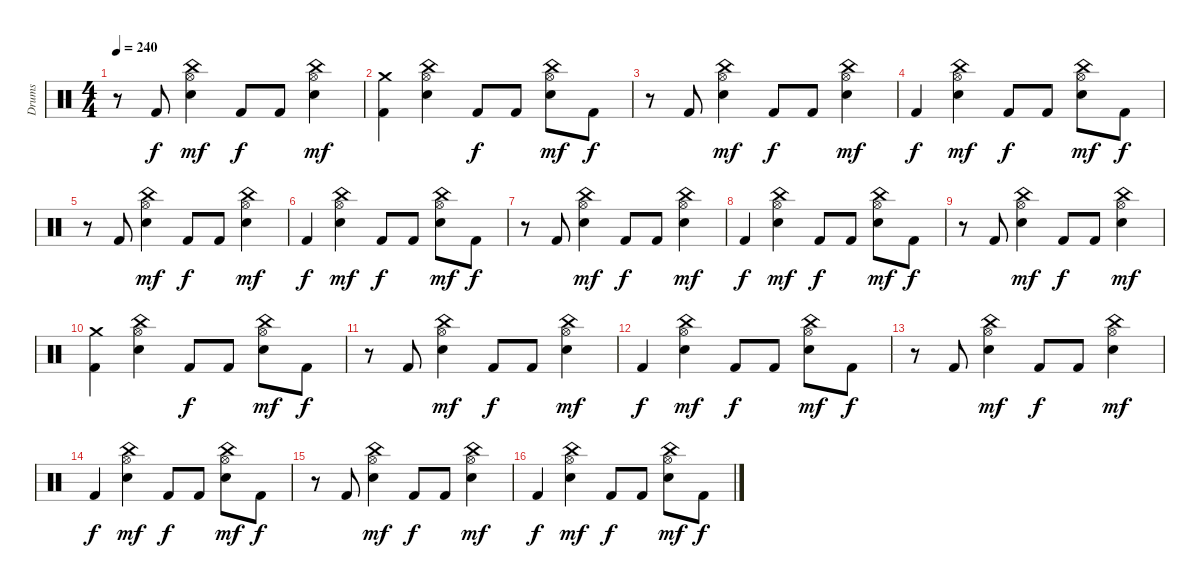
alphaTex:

\track ("Drums" "Drums") {instrument percussion}
\staff {score}
\articulation defaults
\ts (4 4)
\tempo 240
\clef neutral
\ks c
r.8{dy f} "Kick (hit) 2".8 ("Electric Snare (hit)" "China (hit)" "Hi-Hat (open)").4{dy mf} "Kick (hit) 2".8{dy f} "Kick (hit) 2".8 ("Electric Snare (hit)" "China (hit)" "Hi-Hat (open)").4{dy mf} |
("Kick (hit) 2" "Crash medium (hit)").4 ("Electric Snare (hit)" "China (hit)" "Hi-Hat (open)").4 "Kick (hit) 2".8{dy f} "Kick (hit) 2".8 ("Electric Snare (hit)" "China (hit)" "Hi-Hat (open)").8{dy mf} "Kick (hit) 2".8{dy f} |
r.8 "Kick (hit) 2".8 ("Electric Snare (hit)" "China (hit)" "Hi-Hat (open)").4{dy mf} "Kick (hit) 2".8{dy f} "Kick (hit) 2".8 ("Electric Snare (hit)" "China (hit)" "Hi-Hat (open)").4{dy mf} |
"Kick (hit) 2".4{dy f} ("Electric Snare (hit)" "China (hit)" "Hi-Hat (open)").4{dy mf} "Kick (hit) 2".8{dy f} "Kick (hit) 2".8 ("Electric Snare (hit)" "China (hit)" "Hi-Hat (open)").8{dy mf} "Kick (hit) 2".8{dy f} |
r.8 "Kick (hit) 2".8 ("Electric Snare (hit)" "China (hit)" "Hi-Hat (open)").4{dy mf} "Kick (hit) 2".8{dy f} "Kick (hit) 2".8 ("Electric Snare (hit)" "China (hit)" "Hi-Hat (open)").4{dy mf} |
"Kick (hit) 2".4{dy f} ("Electric Snare (hit)" "China (hit)" "Hi-Hat (open)").4{dy mf} "Kick (hit) 2".8{dy f} "Kick (hit) 2".8 ("Electric Snare (hit)" "China (hit)" "Hi-Hat (open)").8{dy mf} "Kick (hit) 2".8{dy f} |
r.8 "Kick (hit) 2".8 ("Electric Snare (hit)" "China (hit)" "Hi-Hat (open)").4{dy mf} "Kick (hit) 2".8{dy f} "Kick (hit) 2".8 ("Electric Snare (hit)" "China (hit)" "Hi-Hat (open)").4{dy mf} |
"Kick (hit) 2".4{dy f} ("Electric Snare (hit)" "China (hit)" "Hi-Hat (open)").4{dy mf} "Kick (hit) 2".8{dy f} "Kick (hit) 2".8 ("Electric Snare (hit)" "China (hit)" "Hi-Hat (open)").8{dy mf} "Kick (hit) 2".8{dy f} |
r.8 "Kick (hit) 2".8 ("Electric Snare (hit)" "China (hit)" "Hi-Hat (open)").4{dy mf} "Kick (hit) 2".8{dy f} "Kick (hit) 2".8 ("Electric Snare (hit)" "China (hit)" "Hi-Hat (open)").4{dy mf} |
("Kick (hit) 2" "Crash medium (hit)").4 ("Electric Snare (hit)" "China (hit)" "Hi-Hat (open)").4 "Kick (hit) 2".8{dy f} "Kick (hit) 2".8 ("Electric Snare (hit)" "China (hit)" "Hi-Hat (open)").8{dy mf} "Kick (hit) 2".8{dy f} |
r.8 "Kick (hit) 2".8 ("Electric Snare (hit)" "China (hit)" "Hi-Hat (open)").4{dy mf} "Kick (hit) 2".8{dy f} "Kick (hit) 2".8 ("Electric Snare (hit)" "China (hit)" "Hi-Hat (open)").4{dy mf} |
"Kick (hit) 2".4{dy f} ("Electric Snare (hit)" "China (hit)" "Hi-Hat (open)").4{dy mf} "Kick (hit) 2".8{dy f} "Kick (hit) 2".8 ("Electric Snare (hit)" "China (hit)" "Hi-Hat (open)").8{dy mf} "Kick (hit) 2".8{dy f} |
r.8 "Kick (hit) 2".8 ("Electric Snare (hit)" "China (hit)" "Hi-Hat (open)").4{dy mf} "Kick (hit) 2".8{dy f} "Kick (hit) 2".8 ("Electric Snare (hit)" "China (hit)" "Hi-Hat (open)").4{dy mf} |
"Kick (hit) 2".4{dy f} ("Electric Snare (hit)" "China (hit)" "Hi-Hat (open)").4{dy mf} "Kick (hit) 2".8{dy f} "Kick (hit) 2".8 ("Electric Snare (hit)" "China (hit)" "Hi-Hat (open)").8{dy mf} "Kick (hit) 2".8{dy f} |
r.8 "Kick (hit) 2".8 ("Electric Snare (hit)" "China (hit)" "Hi-Hat (open)").4{dy mf} "Kick (hit) 2".8{dy f} "Kick (hit) 2".8 ("Electric Snare (hit)" "China (hit)" "Hi-Hat (open)").4{dy mf} |
"Kick (hit) 2".4{dy f} ("Electric Snare (hit)" "China (hit)" "Hi-Hat (open)").4{dy mf} "Kick (hit) 2".8{dy f} "Kick (hit) 2".8 ("Electric Snare (hit)" "China (hit)" "Hi-Hat (open)").8{dy mf} "Kick (hit) 2".8{dy f}
